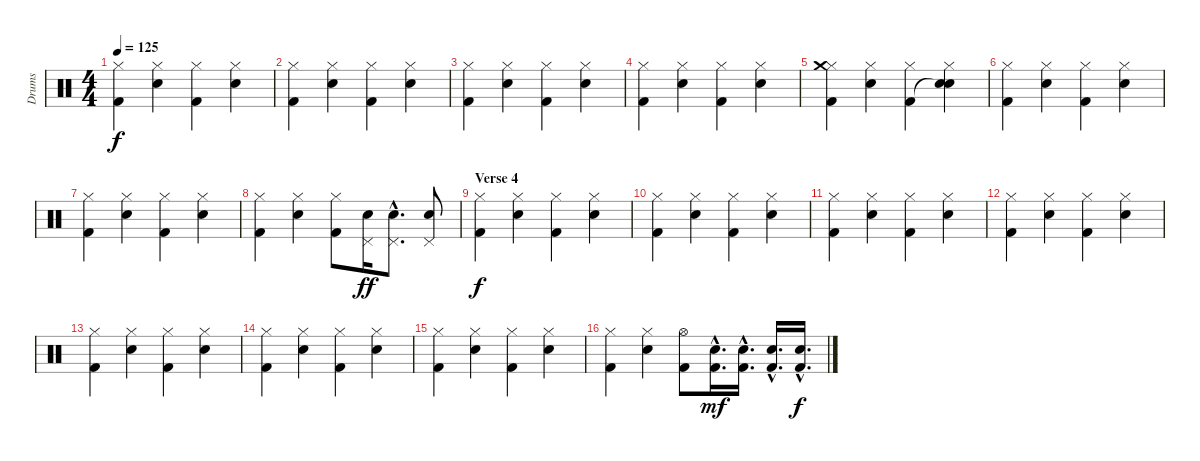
\track ("Drums" "Drums") {instrument percussion}
\staff {score}
\articulation defaults
\ts (4 4)
\tempo 125
\clef neutral
\ks c
("Hi-Hat (closed)" "Kick (hit) 2").4{dy f} ("Hi-Hat (closed)" "Electric Snare (hit)").4 ("Hi-Hat (closed)" "Kick (hit) 2").4 ("Hi-Hat (closed)" "Electric Snare (hit)").4 |
("Hi-Hat (closed)" "Kick (hit) 2").4 ("Hi-Hat (closed)" "Electric Snare (hit)").4 ("Hi-Hat (closed)" "Kick (hit) 2").4 ("Hi-Hat (closed)" "Electric Snare (hit)").4 |
("Hi-Hat (closed)" "Kick (hit) 2").4 ("Hi-Hat (closed)" "Electric Snare (hit)").4 ("Hi-Hat (closed)" "Kick (hit) 2").4 ("Hi-Hat (closed)" "Electric Snare (hit)").4 |
("Hi-Hat (closed)" "Kick (hit) 2").4 ("Hi-Hat (closed)" "Electric Snare (hit)").4 ("Hi-Hat (closed)" "Kick (hit) 2").4 ("Hi-Hat (closed)" "Electric Snare (hit)").4 |
("Hi-Hat (closed)" "Crash medium (hit)" "Kick (hit) 2").4 ("Hi-Hat (closed)" "Electric Snare (hit)").4 ("Hi-Hat (closed)" "Kick (hit) 2").4 ("Hi-Hat (closed)" "Snare (hit)"{t} "Electric Snare (hit)").4 |
("Hi-Hat (closed)" "Kick (hit) 2").4 ("Hi-Hat (closed)" "Electric Snare (hit)").4 ("Hi-Hat (closed)" "Kick (hit) 2").4 ("Hi-Hat (closed)" "Electric Snare (hit)").4 |
("Hi-Hat (closed)" "Kick (hit) 2").4 ("Hi-Hat (closed)" "Electric Snare (hit)").4 ("Hi-Hat (closed)" "Kick (hit) 2").4 ("Hi-Hat (closed)" "Electric Snare (hit)").4 |
("Hi-Hat (closed)" "Kick (hit) 2").4 ("Hi-Hat (closed)" "Electric Snare (hit)").4 ("Hi-Hat (closed)" "Kick (hit) 2").8 ("Pedal Hi-Hat (hit)" "Electric Snare (hit)").16{dy ff} ("Pedal Hi-Hat (hit)"{hac} "Electric Snare (hit)"{hac}).8{d} ("Pedal Hi-Hat (hit)" "Electric Snare (hit)").8 |
\section ("" "Verse 4")
("Hi-Hat (closed)" "Kick (hit) 2").4{dy f} ("Hi-Hat (closed)" "Electric Snare (hit)").4 ("Hi-Hat (closed)" "Kick (hit) 2").4 ("Hi-Hat (closed)" "Electric Snare (hit)").4 |
("Hi-Hat (closed)" "Kick (hit) 2").4 ("Hi-Hat (closed)" "Electric Snare (hit)").4 ("Hi-Hat (closed)" "Kick (hit) 2").4 ("Hi-Hat (closed)" "Electric Snare (hit)").4 |
("Hi-Hat (closed)" "Kick (hit) 2").4 ("Hi-Hat (closed)" "Electric Snare (hit)").4 ("Hi-Hat (closed)" "Kick (hit) 2").4 ("Hi-Hat (closed)" "Electric Snare (hit)").4 |
("Hi-Hat (closed)" "Kick (hit) 2").4 ("Hi-Hat (closed)" "Electric Snare (hit)").4 ("Hi-Hat (closed)" "Kick (hit) 2").4 ("Hi-Hat (closed)" "Electric Snare (hit)").4 |
("Hi-Hat (closed)" "Kick (hit) 2").4 ("Hi-Hat (closed)" "Electric Snare (hit)").4 ("Hi-Hat (closed)" "Kick (hit) 2").4 ("Hi-Hat (closed)" "Electric Snare (hit)").4 |
("Hi-Hat (closed)" "Kick (hit) 2").4 ("Hi-Hat (closed)" "Electric Snare (hit)").4 ("Hi-Hat (closed)" "Kick (hit) 2").4 ("Hi-Hat (closed)" "Electric Snare (hit)").4 |
("Hi-Hat (closed)" "Kick (hit) 2").4 ("Hi-Hat (closed)" "Electric Snare (hit)").4 ("Hi-Hat (closed)" "Kick (hit) 2").4 ("Hi-Hat (closed)" "Electric Snare (hit)").4 |
("Hi-Hat (closed)" "Kick (hit) 2").4 ("Hi-Hat (closed)" "Electric Snare (hit)").4 ("Hi-Hat (open)" "Kick (hit) 2").8 ("Electric Snare (hit)"{hac} "Kick (hit) 2"{hac}).16{d dy mf} ("Electric Snare (hit)"{hac} "Kick (hit) 2"{hac}).16{d} ("Electric Snare (hit)"{hac} "Kick (hit) 2"{hac}).16{d} ("Electric Snare (hit)"{hac} "Kick (hit) 2"{hac}).16{d dy f}
